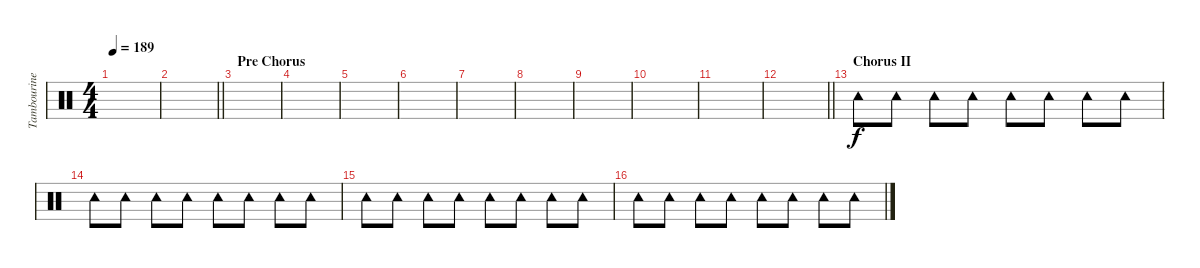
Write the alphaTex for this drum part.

\track ("Tambourine" "Tambourine") {instrument percussion}
\staff {score}
\articulation defaults
\ts (4 4)
\tempo 189
\clef neutral
\ks c
|
\barLineRight lightlight
|
\section ("" "Pre Chorus")
|
|
|
|
|
|
|
|
|
\barLineRight lightlight
|
\section ("" "Chorus II")
"Tambourine (hit)".8 "Tambourine (hit)".8 "Tambourine (hit)".8 "Tambourine (hit)".8 "Tambourine (hit)".8 "Tambourine (hit)".8 "Tambourine (hit)".8 "Tambourine (hit)".8 |
"Tambourine (hit)".8 "Tambourine (hit)".8 "Tambourine (hit)".8 "Tambourine (hit)".8 "Tambourine (hit)".8 "Tambourine (hit)".8 "Tambourine (hit)".8 "Tambourine (hit)".8 |
"Tambourine (hit)".8 "Tambourine (hit)".8 "Tambourine (hit)".8 "Tambourine (hit)".8 "Tambourine (hit)".8 "Tambourine (hit)".8 "Tambourine (hit)".8 "Tambourine (hit)".8 |
"Tambourine (hit)".8 "Tambourine (hit)".8 "Tambourine (hit)".8 "Tambourine (hit)".8 "Tambourine (hit)".8 "Tambourine (hit)".8 "Tambourine (hit)".8 "Tambourine (hit)".8
